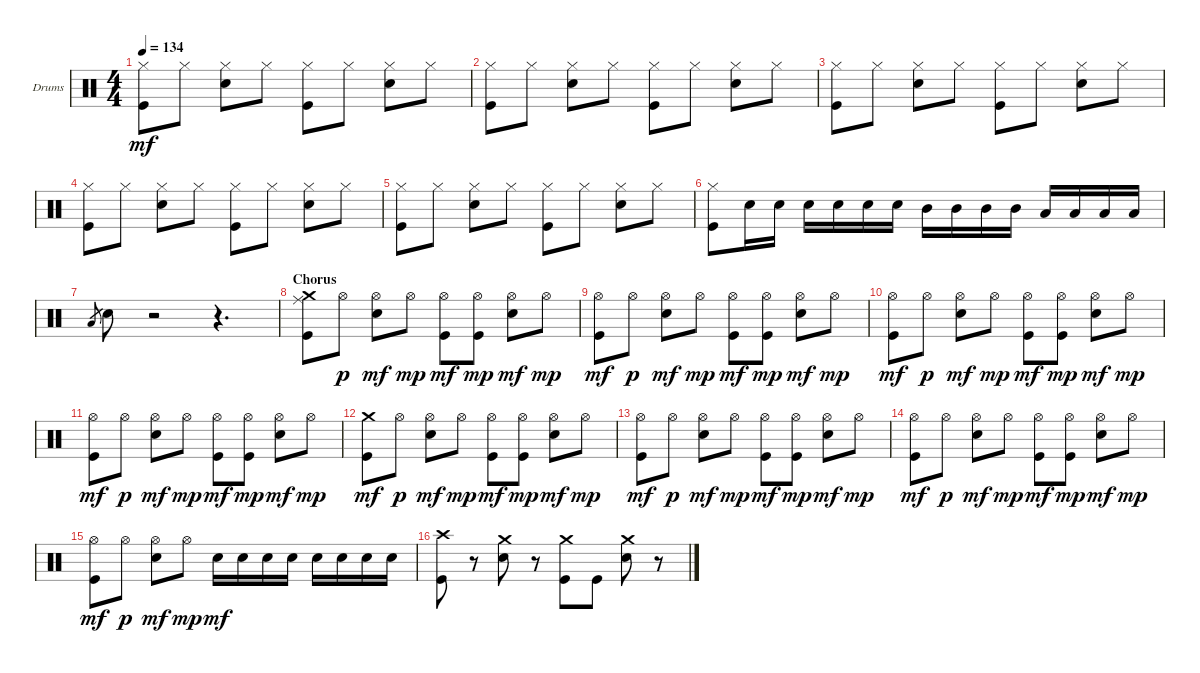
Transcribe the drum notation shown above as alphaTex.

\defaultSystemsLayout 4
\bracketExtendMode groupsimilarinstruments
\firstSystemTrackNameOrientation horizontal
\otherSystemsTrackNameOrientation horizontal
\track ("Drums" "Drums") {instrument percussion}
\staff {score}
\articulation defaults
\ts (4 4)
\tempo 134
\clef neutral
\ks c
("Hi-Hat (closed)" "Kick (hit)").8{dy mf} "Hi-Hat (closed)".8 ("Hi-Hat (closed)" "Snare (hit) 2").8 "Hi-Hat (closed)".8 ("Hi-Hat (closed)" "Kick (hit)").8 "Hi-Hat (closed)".8 ("Hi-Hat (closed)" "Snare (hit) 2").8 "Hi-Hat (closed)".8 |
("Hi-Hat (closed)" "Kick (hit)").8 "Hi-Hat (closed)".8 ("Hi-Hat (closed)" "Snare (hit) 2").8 "Hi-Hat (closed)".8 ("Hi-Hat (closed)" "Kick (hit)").8 "Hi-Hat (closed)".8 ("Hi-Hat (closed)" "Snare (hit) 2").8 "Hi-Hat (closed)".8 |
("Hi-Hat (closed)" "Kick (hit)").8 "Hi-Hat (closed)".8 ("Hi-Hat (closed)" "Snare (hit) 2").8 "Hi-Hat (closed)".8 ("Hi-Hat (closed)" "Kick (hit)").8 "Hi-Hat (closed)".8 ("Hi-Hat (closed)" "Snare (hit) 2").8 "Hi-Hat (closed)".8 |
("Hi-Hat (closed)" "Kick (hit)").8 "Hi-Hat (closed)".8 ("Hi-Hat (closed)" "Snare (hit) 2").8 "Hi-Hat (closed)".8 ("Hi-Hat (closed)" "Kick (hit)").8 "Hi-Hat (closed)".8 ("Hi-Hat (closed)" "Snare (hit) 2").8 "Hi-Hat (closed)".8 |
("Hi-Hat (closed)" "Kick (hit)").8 "Hi-Hat (closed)".8 ("Hi-Hat (closed)" "Snare (hit) 2").8 "Hi-Hat (closed)".8 ("Hi-Hat (closed)" "Kick (hit)").8 "Hi-Hat (closed)".8 ("Hi-Hat (closed)" "Snare (hit) 2").8 "Hi-Hat (closed)".8 |
("Hi-Hat (closed)" "Kick (hit)").8 "Snare (hit) 2".16 "Snare (hit) 2".16 "Snare (hit) 2".16 "Snare (hit) 2".16 "Snare (hit) 2".16 "Snare (hit) 2".16 "Mid Tom (hit)".16 "Mid Tom (hit)".16 "Mid Tom (hit)".16 "Mid Tom (hit)".16 "Low Tom (hit)".16 "Low Tom (hit)".16 "Low Tom (hit)".16 "Low Tom (hit)".16 |
"Low Tom (hit)".8{gr} "Snare (hit) 2".8 r.2 r.4{d} |
\section ("" "Chorus")
("Kick (hit)" "Ride (middle)" "Crash medium (hit)").8 "Hi-Hat (open)".8{dy p} ("Hi-Hat (open)" "Snare (hit) 2").8{dy mf} "Hi-Hat (open)".8{dy mp} ("Hi-Hat (open)" "Kick (hit)").8{dy mf} ("Hi-Hat (open)" "Kick (hit)").8{dy mp} ("Hi-Hat (open)" "Snare (hit) 2").8{dy mf} "Hi-Hat (open)".8{dy mp} |
("Hi-Hat (open)" "Kick (hit)").8{dy mf} "Hi-Hat (open)".8{dy p} ("Hi-Hat (open)" "Snare (hit) 2").8{dy mf} "Hi-Hat (open)".8{dy mp} ("Hi-Hat (open)" "Kick (hit)").8{dy mf} ("Hi-Hat (open)" "Kick (hit)").8{dy mp} ("Hi-Hat (open)" "Snare (hit) 2").8{dy mf} "Hi-Hat (open)".8{dy mp} |
("Hi-Hat (open)" "Kick (hit)").8{dy mf} "Hi-Hat (open)".8{dy p} ("Hi-Hat (open)" "Snare (hit) 2").8{dy mf} "Hi-Hat (open)".8{dy mp} ("Hi-Hat (open)" "Kick (hit)").8{dy mf} ("Hi-Hat (open)" "Kick (hit)").8{dy mp} ("Hi-Hat (open)" "Snare (hit) 2").8{dy mf} "Hi-Hat (open)".8{dy mp} |
("Hi-Hat (open)" "Kick (hit)").8{dy mf} "Hi-Hat (open)".8{dy p} ("Hi-Hat (open)" "Snare (hit) 2").8{dy mf} "Hi-Hat (open)".8{dy mp} ("Hi-Hat (open)" "Kick (hit)").8{dy mf} ("Hi-Hat (open)" "Kick (hit)").8{dy mp} ("Hi-Hat (open)" "Snare (hit) 2").8{dy mf} "Hi-Hat (open)".8{dy mp} |
("Kick (hit)" "Crash medium (hit)").8{dy mf} "Hi-Hat (open)".8{dy p} ("Hi-Hat (open)" "Snare (hit) 2").8{dy mf} "Hi-Hat (open)".8{dy mp} ("Hi-Hat (open)" "Kick (hit)").8{dy mf} ("Hi-Hat (open)" "Kick (hit)").8{dy mp} ("Hi-Hat (open)" "Snare (hit) 2").8{dy mf} "Hi-Hat (open)".8{dy mp} |
("Hi-Hat (open)" "Kick (hit)").8{dy mf} "Hi-Hat (open)".8{dy p} ("Hi-Hat (open)" "Snare (hit) 2").8{dy mf} "Hi-Hat (open)".8{dy mp} ("Hi-Hat (open)" "Kick (hit)").8{dy mf} ("Hi-Hat (open)" "Kick (hit)").8{dy mp} ("Hi-Hat (open)" "Snare (hit) 2").8{dy mf} "Hi-Hat (open)".8{dy mp} |
("Hi-Hat (open)" "Kick (hit)").8{dy mf} "Hi-Hat (open)".8{dy p} ("Hi-Hat (open)" "Snare (hit) 2").8{dy mf} "Hi-Hat (open)".8{dy mp} ("Hi-Hat (open)" "Kick (hit)").8{dy mf} ("Hi-Hat (open)" "Kick (hit)").8{dy mp} ("Hi-Hat (open)" "Snare (hit) 2").8{dy mf} "Hi-Hat (open)".8{dy mp} |
("Hi-Hat (open)" "Kick (hit)").8{dy mf} "Hi-Hat (open)".8{dy p} ("Hi-Hat (open)" "Snare (hit) 2").8{dy mf} "Hi-Hat (open)".8{dy mp} "Snare (hit) 2".16{dy mf} "Snare (hit) 2".16 "Snare (hit) 2".16 "Snare (hit) 2".16 "Snare (hit) 2".16 "Snare (hit) 2".16 "Snare (hit) 2".16 "Snare (hit) 2".16 |
("Kick (hit)" "Crash high (hit)").8 r.8 ("Snare (hit) 2" "Crash medium (hit)").8 r.8 ("Kick (hit)" "Crash medium (hit)").8 "Kick (hit)".8 ("Snare (hit) 2" "Crash medium (hit)").8 r.8
